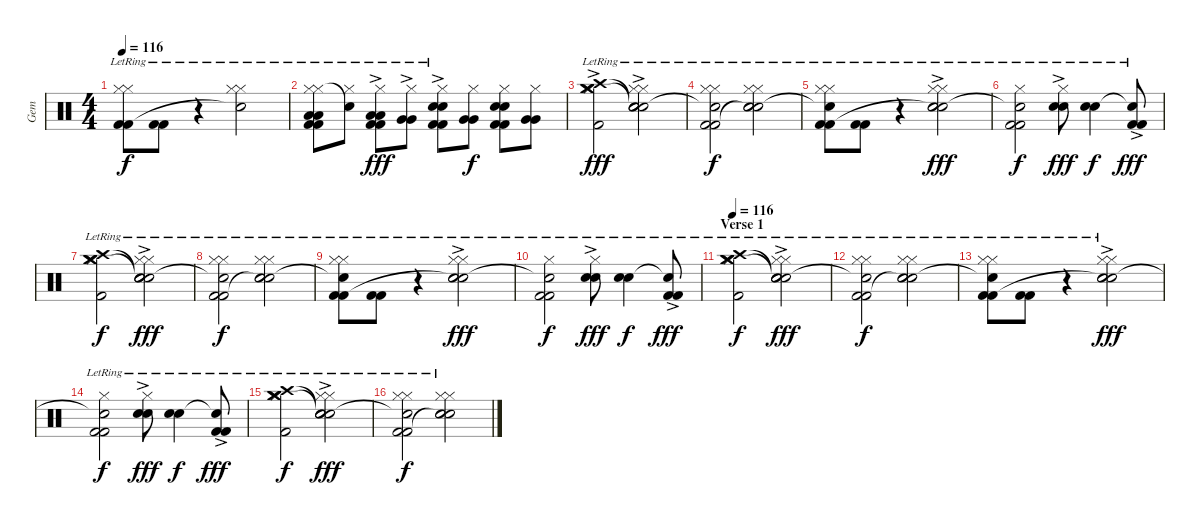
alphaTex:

\track ("Gem" "Gem") {instrument percussion}
\staff {score}
\articulation defaults
\ts (4 4)
\tempo 116
\clef neutral
\ks c
("Hi-Hat (closed)"{lr} "Hi-Hat (closed)"{lr} "Kick (hit) 2" "Kick (hit) 2"{lr}).8{dy f} ("Kick (hit) 2" "Kick (hit) 2"{lr}).8 r.4 ("Hi-Hat (closed)"{lr} "Hi-Hat (closed)"{lr} "Snare (hit)"{t}).2 |
("Hi-Hat (closed)"{lr} "Hi-Hat (closed)"{lr} "Low Floor Tom (hit)"{lr} "Low Floor Tom (hit)" "Kick (hit) 2" "Kick (hit) 2"{lr}).8 ("Hi-Hat (closed)"{lr} "Snare (hit)"{t}).8 ("Hi-Hat (closed)" "Low Floor Tom (hit)"{lr} "Low Floor Tom (hit)"{ac} "Kick (hit) 2" "Kick (hit) 2").8{dy fff} ("Hi-Hat (closed)" "Very Low Tom (hit)"{ac lr} "Very Low Tom (hit)").8 ("Hi-Hat (closed)" "Snare (hit) 2"{lr} "Snare (hit) 2"{ac lr} "Kick (hit) 2" "Kick (hit) 2").8 ("Hi-Hat (closed)" "Very Low Tom (hit)" "Very Low Tom (hit)").8{dy f} ("Hi-Hat (closed)" "Snare (hit) 2" "Snare (hit) 2" "Kick (hit) 2" "Kick (hit) 2").8 ("Hi-Hat (closed)" "Very Low Tom (hit)" "Very Low Tom (hit)").8 |
("Hi-Hat (closed)"{ac lr} "Hi-Hat (closed)"{lr} "Crash medium (hit)"{ac lr} "Crash medium (hit)"{lr} "Kick (hit) 2"{lr} "Crash high (hit)"{lr}).2{dy fff} ("Hi-Hat (closed)"{lr} "Hi-Hat (closed)"{lr} "Snare (hit)"{t} "Snare (hit) 2" "Snare (hit) 2"{ac lr} "Snare (hit)"{t}).2 |
("Hi-Hat (closed)"{lr} "Hi-Hat (closed)"{lr} "Kick (hit) 2" "Snare (hit)"{t} "Kick (hit) 2"{lr}).2{dy f} ("Hi-Hat (closed)"{lr} "Hi-Hat (closed)"{lr} "Snare (hit) 2" "Snare (hit) 2"{lr} "Snare (hit)"{t}).2 |
("Hi-Hat (closed)"{lr} "Hi-Hat (closed)"{lr} "Kick (hit) 2" "Snare (hit)"{t} "Kick (hit) 2"{lr}).8 ("Kick (hit) 2" "Kick (hit) 2"{lr}).8 r.4 ("Hi-Hat (closed)"{lr} "Hi-Hat (closed)"{lr} "Snare (hit) 2" "Snare (hit) 2"{ac lr} "Snare (hit)"{t}).2{dy fff} |
("Hi-Hat (closed)"{lr} "Kick (hit) 2" "Snare (hit)"{t} "Kick (hit) 2"{lr}).2{dy f} ("Hi-Hat (closed)"{lr} "Snare (hit) 2" "Snare (hit) 2"{ac lr}).8{dy fff} ("Snare (hit) 2" "Snare (hit) 2"{lr}).4{dy f} ("Kick (hit) 2" "Snare (hit)"{t} "Kick (hit) 2"{ac lr}).8{dy fff} |
("Hi-Hat (closed)"{lr} "Hi-Hat (closed)"{lr} "Crash medium (hit)"{lr} "Crash medium (hit)"{lr} "Kick (hit) 2"{lr} "Crash high (hit)"{lr}).2{dy f} ("Hi-Hat (closed)"{lr} "Hi-Hat (closed)"{lr} "Snare (hit)"{t} "Snare (hit) 2" "Snare (hit) 2"{ac lr} "Snare (hit)"{t}).2{dy fff} |
("Hi-Hat (closed)"{lr} "Hi-Hat (closed)"{lr} "Kick (hit) 2" "Snare (hit)"{t} "Kick (hit) 2"{lr}).2{dy f} ("Hi-Hat (closed)"{lr} "Hi-Hat (closed)"{lr} "Snare (hit) 2" "Snare (hit) 2"{lr} "Snare (hit)"{t}).2 |
("Hi-Hat (closed)"{lr} "Hi-Hat (closed)"{lr} "Kick (hit) 2" "Snare (hit)"{t} "Kick (hit) 2"{lr}).8 ("Kick (hit) 2" "Kick (hit) 2"{lr}).8 r.4 ("Hi-Hat (closed)"{lr} "Hi-Hat (closed)"{lr} "Snare (hit) 2" "Snare (hit) 2"{ac lr} "Snare (hit)"{t}).2{dy fff} |
("Hi-Hat (closed)"{lr} "Kick (hit) 2" "Snare (hit)"{t} "Kick (hit) 2"{lr}).2{dy f} ("Hi-Hat (closed)"{lr} "Snare (hit) 2" "Snare (hit) 2"{ac lr}).8{dy fff} ("Snare (hit) 2" "Snare (hit) 2"{lr}).4{dy f} ("Kick (hit) 2" "Snare (hit)"{t} "Kick (hit) 2"{ac lr}).8{dy fff} |
\section ("" "Verse 1")
\tempo 116
("Hi-Hat (closed)"{lr} "Hi-Hat (closed)"{lr} "Crash medium (hit)"{lr} "Crash medium (hit)"{lr} "Kick (hit) 2"{lr} "Crash high (hit)"{lr}).2{dy f} ("Hi-Hat (closed)"{lr} "Hi-Hat (closed)"{lr} "Snare (hit)"{t} "Snare (hit) 2" "Snare (hit) 2"{ac lr} "Snare (hit)"{t}).2{dy fff} |
("Hi-Hat (closed)"{lr} "Hi-Hat (closed)"{lr} "Kick (hit) 2" "Snare (hit)"{t} "Kick (hit) 2"{lr}).2{dy f} ("Hi-Hat (closed)"{lr} "Hi-Hat (closed)"{lr} "Snare (hit) 2" "Snare (hit) 2"{lr} "Snare (hit)"{t}).2 |
("Hi-Hat (closed)"{lr} "Hi-Hat (closed)"{lr} "Kick (hit) 2" "Snare (hit)"{t} "Kick (hit) 2"{lr}).8 ("Kick (hit) 2" "Kick (hit) 2"{lr}).8 r.4 ("Hi-Hat (closed)"{lr} "Hi-Hat (closed)"{lr} "Snare (hit) 2" "Snare (hit) 2"{ac lr} "Snare (hit)"{t}).2{dy fff} |
("Hi-Hat (closed)"{lr} "Kick (hit) 2" "Snare (hit)"{t} "Kick (hit) 2"{lr}).2{dy f} ("Hi-Hat (closed)"{lr} "Snare (hit) 2" "Snare (hit) 2"{ac lr}).8{dy fff} ("Snare (hit) 2" "Snare (hit) 2"{lr}).4{dy f} ("Kick (hit) 2" "Snare (hit)"{t} "Kick (hit) 2"{ac lr}).8{dy fff} |
("Hi-Hat (closed)"{lr} "Hi-Hat (closed)"{lr} "Crash medium (hit)"{lr} "Crash medium (hit)"{lr} "Kick (hit) 2"{lr} "Crash high (hit)").2{dy f} ("Hi-Hat (closed)"{lr} "Hi-Hat (closed)"{lr} "Snare (hit)"{t} "Snare (hit) 2" "Snare (hit) 2"{ac lr} "Snare (hit)"{t}).2{dy fff} |
("Hi-Hat (closed)"{lr} "Hi-Hat (closed)"{lr} "Kick (hit) 2" "Snare (hit)"{t} "Kick (hit) 2"{lr}).2{dy f} ("Hi-Hat (closed)"{lr} "Hi-Hat (closed)"{lr} "Snare (hit) 2" "Snare (hit) 2"{lr} "Snare (hit)"{t}).2
